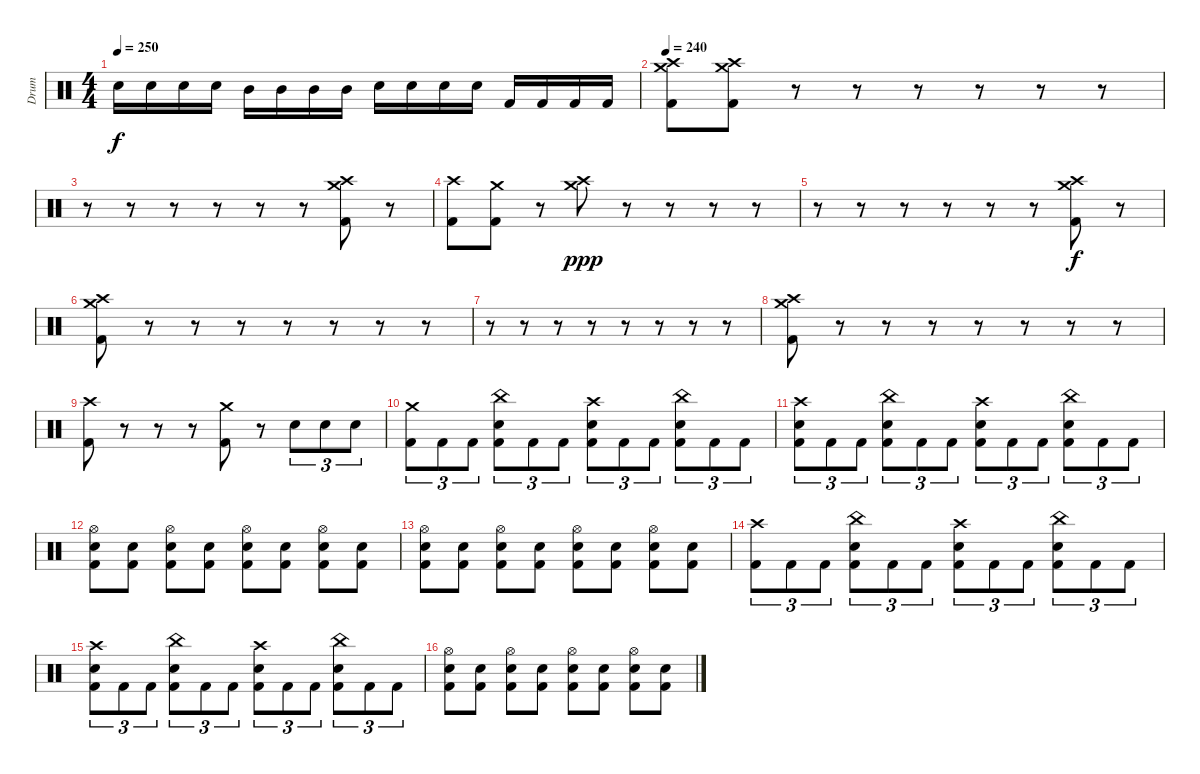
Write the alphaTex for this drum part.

\track ("Drum" "Drum") {instrument percussion}
\staff {score}
\articulation defaults
\ts (4 4)
\tempo 250
\clef neutral
\ks c "Electric Snare (hit)".16{dy f} "Electric Snare (hit)".16 "Electric Snare (hit)".16 "Electric Snare (hit)".16 "Mid Tom (hit)".16 "Mid Tom (hit)".16 "Mid Tom (hit)".16 "Mid Tom (hit)".16 "Electric Snare (hit)".16 "Electric Snare (hit)".16 "Electric Snare (hit)".16 "Electric Snare (hit)".16 "Kick (hit) 2".16 "Kick (hit) 2".16 "Kick (hit) 2".16 "Kick (hit) 2".16
|
\tempo 240
("Crash medium (hit)" "Crash high (hit)" "Kick (hit) 2").8 ("Crash medium (hit)" "Crash high (hit)" "Kick (hit) 2").8 r.8 r.8 r.8 r.8 r.8 r.8 |
r.8 r.8 r.8 r.8 r.8 r.8 ("Crash medium (hit)" "Crash high (hit)" "Kick (hit) 2").8 r.8 |
("Crash high (hit)" "Kick (hit) 2").8 ("Crash medium (hit)" "Kick (hit) 2").8 r.8 ("Crash medium (hit)" "Crash high (hit)").8{dy ppp} r.8 r.8 r.8 r.8 |
r.8 r.8 r.8 r.8 r.8 r.8 ("Crash medium (hit)" "Crash high (hit)" "Kick (hit) 2").8{dy f} r.8 |
("Crash medium (hit)" "Crash high (hit)" "Kick (hit) 2").8 r.8 r.8 r.8 r.8 r.8 r.8 r.8 |
r.8 r.8 r.8 r.8 r.8 r.8 r.8 r.8 |
("Crash medium (hit)" "Crash high (hit)" "Kick (hit) 2").8 r.8 r.8 r.8 r.8 r.8 r.8 r.8 |
("Crash high (hit)" "Kick (hit) 2").8 r.8 r.8 r.8 ("Crash medium (hit)" "Kick (hit) 2").8 r.8 "Electric Snare (hit)".8{tu (3 2)} "Electric Snare (hit)".8{tu (3 2)} "Electric Snare (hit)".8{tu (3 2)} |
("Crash medium (hit)" "Kick (hit) 2").8{tu (3 2)} "Kick (hit) 2".8{tu (3 2)} "Kick (hit) 2".8{tu (3 2)} ("China (hit)" "Electric Snare (hit)" "Kick (hit) 2").8{tu (3 2)} "Kick (hit) 2".8{tu (3 2)} "Kick (hit) 2".8{tu (3 2)} ("Crash high (hit)" "Electric Snare (hit)" "Kick (hit) 2").8{tu (3 2)} "Kick (hit) 2".8{tu (3 2)} "Kick (hit) 2".8{tu (3 2)} ("China (hit)" "Electric Snare (hit)" "Kick (hit) 2").8{tu (3 2)} "Kick (hit) 2".8{tu (3 2)} "Kick (hit) 2".8{tu (3 2)} |
("Crash high (hit)" "Electric Snare (hit)" "Kick (hit) 2").8{tu (3 2)} "Kick (hit) 2".8{tu (3 2)} "Kick (hit) 2".8{tu (3 2)} ("China (hit)" "Electric Snare (hit)" "Kick (hit) 2").8{tu (3 2)} "Kick (hit) 2".8{tu (3 2)} "Kick (hit) 2".8{tu (3 2)} ("Crash high (hit)" "Electric Snare (hit)" "Kick (hit) 2").8{tu (3 2)} "Kick (hit) 2".8{tu (3 2)} "Kick (hit) 2".8{tu (3 2)} ("China (hit)" "Electric Snare (hit)" "Kick (hit) 2").8{tu (3 2)} "Kick (hit) 2".8{tu (3 2)} "Kick (hit) 2".8{tu (3 2)} |
("Hi-Hat (open)" "Electric Snare (hit)" "Kick (hit) 2").8 ("Electric Snare (hit)" "Kick (hit) 2").8 ("Hi-Hat (open)" "Electric Snare (hit)" "Kick (hit) 2").8 ("Electric Snare (hit)" "Kick (hit) 2").8 ("Hi-Hat (open)" "Electric Snare (hit)" "Kick (hit) 2").8 ("Electric Snare (hit)" "Kick (hit) 2").8 ("Hi-Hat (open)" "Electric Snare (hit)" "Kick (hit) 2").8 ("Electric Snare (hit)" "Kick (hit) 2").8 |
("Hi-Hat (open)" "Electric Snare (hit)" "Kick (hit) 2").8 ("Electric Snare (hit)" "Kick (hit) 2").8 ("Hi-Hat (open)" "Electric Snare (hit)" "Kick (hit) 2").8 ("Electric Snare (hit)" "Kick (hit) 2").8 ("Hi-Hat (open)" "Electric Snare (hit)" "Kick (hit) 2").8 ("Electric Snare (hit)" "Kick (hit) 2").8 ("Hi-Hat (open)" "Electric Snare (hit)" "Kick (hit) 2").8 ("Electric Snare (hit)" "Kick (hit) 2").8 |
("Crash high (hit)" "Kick (hit) 2").8{tu (3 2)} "Kick (hit) 2".8{tu (3 2)} "Kick (hit) 2".8{tu (3 2)} ("China (hit)" "Electric Snare (hit)" "Kick (hit) 2").8{tu (3 2)} "Kick (hit) 2".8{tu (3 2)} "Kick (hit) 2".8{tu (3 2)} ("Crash high (hit)" "Electric Snare (hit)" "Kick (hit) 2").8{tu (3 2)} "Kick (hit) 2".8{tu (3 2)} "Kick (hit) 2".8{tu (3 2)} ("China (hit)" "Electric Snare (hit)" "Kick (hit) 2").8{tu (3 2)} "Kick (hit) 2".8{tu (3 2)} "Kick (hit) 2".8{tu (3 2)} |
("Crash high (hit)" "Electric Snare (hit)" "Kick (hit) 2").8{tu (3 2)} "Kick (hit) 2".8{tu (3 2)} "Kick (hit) 2".8{tu (3 2)} ("China (hit)" "Electric Snare (hit)" "Kick (hit) 2").8{tu (3 2)} "Kick (hit) 2".8{tu (3 2)} "Kick (hit) 2".8{tu (3 2)} ("Crash high (hit)" "Electric Snare (hit)" "Kick (hit) 2").8{tu (3 2)} "Kick (hit) 2".8{tu (3 2)} "Kick (hit) 2".8{tu (3 2)} ("China (hit)" "Electric Snare (hit)" "Kick (hit) 2").8{tu (3 2)} "Kick (hit) 2".8{tu (3 2)} "Kick (hit) 2".8{tu (3 2)} |
("Hi-Hat (open)" "Electric Snare (hit)" "Kick (hit) 2").8 ("Electric Snare (hit)" "Kick (hit) 2").8 ("Hi-Hat (open)" "Electric Snare (hit)" "Kick (hit) 2").8 ("Electric Snare (hit)" "Kick (hit) 2").8 ("Hi-Hat (open)" "Electric Snare (hit)" "Kick (hit) 2").8 ("Electric Snare (hit)" "Kick (hit) 2").8 ("Hi-Hat (open)" "Electric Snare (hit)" "Kick (hit) 2").8 ("Electric Snare (hit)" "Kick (hit) 2").8
